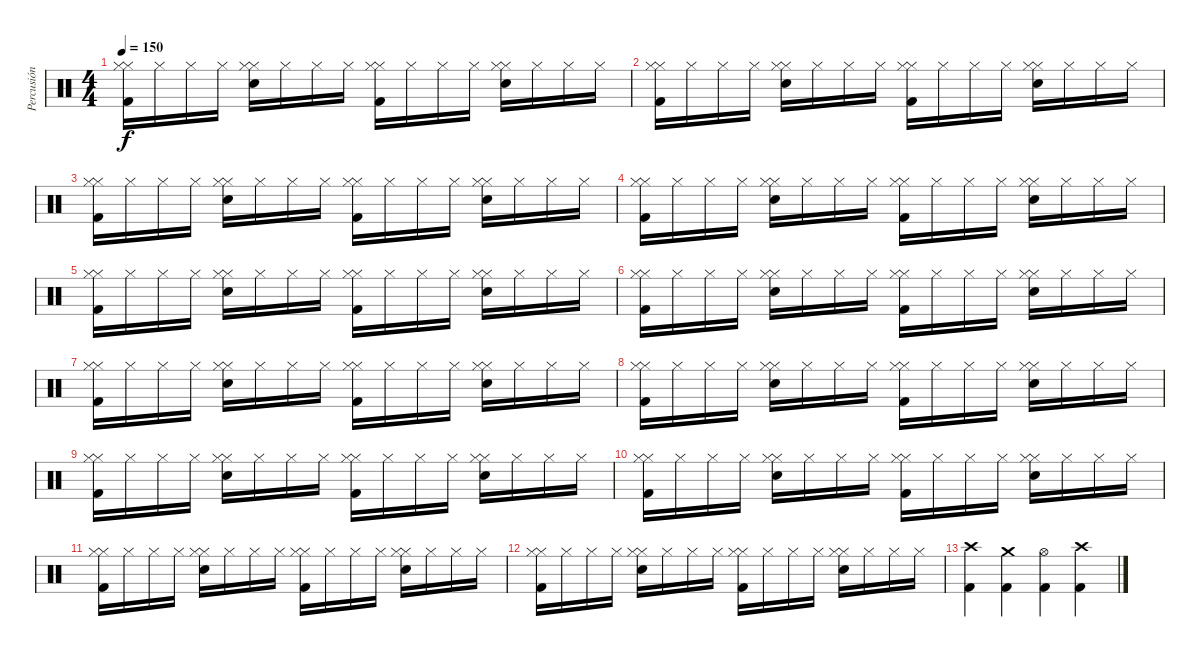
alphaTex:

\track ("Percusión" "Percusión") {instrument percussion}
\staff {score}
\articulation defaults
\ts (4 4)
\tempo 150
\clef neutral
\ks c
("Kick (hit) 2" "Hi-Hat (closed)" "Hi-Hat (closed)").16{dy f} "Hi-Hat (closed)".16 "Hi-Hat (closed)".16 "Hi-Hat (closed)".16 ("Hi-Hat (closed)" "Electric Snare (hit)" "Hi-Hat (closed)").16 "Hi-Hat (closed)".16 "Hi-Hat (closed)".16 "Hi-Hat (closed)".16 ("Kick (hit) 2" "Hi-Hat (closed)" "Hi-Hat (closed)").16 "Hi-Hat (closed)".16 "Hi-Hat (closed)".16 "Hi-Hat (closed)".16 ("Hi-Hat (closed)" "Electric Snare (hit)" "Hi-Hat (closed)").16 "Hi-Hat (closed)".16 "Hi-Hat (closed)".16 "Hi-Hat (closed)".16 |
("Kick (hit) 2" "Hi-Hat (closed)" "Hi-Hat (closed)").16 "Hi-Hat (closed)".16 "Hi-Hat (closed)".16 "Hi-Hat (closed)".16 ("Hi-Hat (closed)" "Electric Snare (hit)" "Hi-Hat (closed)").16 "Hi-Hat (closed)".16 "Hi-Hat (closed)".16 "Hi-Hat (closed)".16 ("Kick (hit) 2" "Hi-Hat (closed)" "Hi-Hat (closed)").16 "Hi-Hat (closed)".16 "Hi-Hat (closed)".16 "Hi-Hat (closed)".16 ("Hi-Hat (closed)" "Electric Snare (hit)" "Hi-Hat (closed)").16 "Hi-Hat (closed)".16 "Hi-Hat (closed)".16 "Hi-Hat (closed)".16 |
("Kick (hit) 2" "Hi-Hat (closed)" "Hi-Hat (closed)").16 "Hi-Hat (closed)".16 "Hi-Hat (closed)".16 "Hi-Hat (closed)".16 ("Hi-Hat (closed)" "Electric Snare (hit)" "Hi-Hat (closed)").16 "Hi-Hat (closed)".16 "Hi-Hat (closed)".16 "Hi-Hat (closed)".16 ("Kick (hit) 2" "Hi-Hat (closed)" "Hi-Hat (closed)").16 "Hi-Hat (closed)".16 "Hi-Hat (closed)".16 "Hi-Hat (closed)".16 ("Hi-Hat (closed)" "Electric Snare (hit)" "Hi-Hat (closed)").16 "Hi-Hat (closed)".16 "Hi-Hat (closed)".16 "Hi-Hat (closed)".16 |
("Kick (hit) 2" "Hi-Hat (closed)" "Hi-Hat (closed)").16 "Hi-Hat (closed)".16 "Hi-Hat (closed)".16 "Hi-Hat (closed)".16 ("Hi-Hat (closed)" "Electric Snare (hit)" "Hi-Hat (closed)").16 "Hi-Hat (closed)".16 "Hi-Hat (closed)".16 "Hi-Hat (closed)".16 ("Kick (hit) 2" "Hi-Hat (closed)" "Hi-Hat (closed)").16 "Hi-Hat (closed)".16 "Hi-Hat (closed)".16 "Hi-Hat (closed)".16 ("Hi-Hat (closed)" "Electric Snare (hit)" "Hi-Hat (closed)").16 "Hi-Hat (closed)".16 "Hi-Hat (closed)".16 "Hi-Hat (closed)".16 |
("Kick (hit) 2" "Hi-Hat (closed)" "Hi-Hat (closed)").16 "Hi-Hat (closed)".16 "Hi-Hat (closed)".16 "Hi-Hat (closed)".16 ("Hi-Hat (closed)" "Electric Snare (hit)" "Hi-Hat (closed)").16 "Hi-Hat (closed)".16 "Hi-Hat (closed)".16 "Hi-Hat (closed)".16 ("Kick (hit) 2" "Hi-Hat (closed)" "Hi-Hat (closed)").16 "Hi-Hat (closed)".16 "Hi-Hat (closed)".16 "Hi-Hat (closed)".16 ("Hi-Hat (closed)" "Electric Snare (hit)" "Hi-Hat (closed)").16 "Hi-Hat (closed)".16 "Hi-Hat (closed)".16 "Hi-Hat (closed)".16 |
("Kick (hit) 2" "Hi-Hat (closed)" "Hi-Hat (closed)").16 "Hi-Hat (closed)".16 "Hi-Hat (closed)".16 "Hi-Hat (closed)".16 ("Hi-Hat (closed)" "Electric Snare (hit)" "Hi-Hat (closed)").16 "Hi-Hat (closed)".16 "Hi-Hat (closed)".16 "Hi-Hat (closed)".16 ("Kick (hit) 2" "Hi-Hat (closed)" "Hi-Hat (closed)").16 "Hi-Hat (closed)".16 "Hi-Hat (closed)".16 "Hi-Hat (closed)".16 ("Hi-Hat (closed)" "Electric Snare (hit)" "Hi-Hat (closed)").16 "Hi-Hat (closed)".16 "Hi-Hat (closed)".16 "Hi-Hat (closed)".16 |
("Kick (hit) 2" "Hi-Hat (closed)" "Hi-Hat (closed)").16 "Hi-Hat (closed)".16 "Hi-Hat (closed)".16 "Hi-Hat (closed)".16 ("Hi-Hat (closed)" "Electric Snare (hit)" "Hi-Hat (closed)").16 "Hi-Hat (closed)".16 "Hi-Hat (closed)".16 "Hi-Hat (closed)".16 ("Kick (hit) 2" "Hi-Hat (closed)" "Hi-Hat (closed)").16 "Hi-Hat (closed)".16 "Hi-Hat (closed)".16 "Hi-Hat (closed)".16 ("Hi-Hat (closed)" "Electric Snare (hit)" "Hi-Hat (closed)").16 "Hi-Hat (closed)".16 "Hi-Hat (closed)".16 "Hi-Hat (closed)".16 |
("Kick (hit) 2" "Hi-Hat (closed)" "Hi-Hat (closed)").16 "Hi-Hat (closed)".16 "Hi-Hat (closed)".16 "Hi-Hat (closed)".16 ("Hi-Hat (closed)" "Electric Snare (hit)" "Hi-Hat (closed)").16 "Hi-Hat (closed)".16 "Hi-Hat (closed)".16 "Hi-Hat (closed)".16 ("Kick (hit) 2" "Hi-Hat (closed)" "Hi-Hat (closed)").16 "Hi-Hat (closed)".16 "Hi-Hat (closed)".16 "Hi-Hat (closed)".16 ("Hi-Hat (closed)" "Electric Snare (hit)" "Hi-Hat (closed)").16 "Hi-Hat (closed)".16 "Hi-Hat (closed)".16 "Hi-Hat (closed)".16 |
("Kick (hit) 2" "Hi-Hat (closed)" "Hi-Hat (closed)").16 "Hi-Hat (closed)".16 "Hi-Hat (closed)".16 "Hi-Hat (closed)".16 ("Hi-Hat (closed)" "Electric Snare (hit)" "Hi-Hat (closed)").16 "Hi-Hat (closed)".16 "Hi-Hat (closed)".16 "Hi-Hat (closed)".16 ("Kick (hit) 2" "Hi-Hat (closed)" "Hi-Hat (closed)").16 "Hi-Hat (closed)".16 "Hi-Hat (closed)".16 "Hi-Hat (closed)".16 ("Hi-Hat (closed)" "Electric Snare (hit)" "Hi-Hat (closed)").16 "Hi-Hat (closed)".16 "Hi-Hat (closed)".16 "Hi-Hat (closed)".16 |
("Kick (hit) 2" "Hi-Hat (closed)" "Hi-Hat (closed)").16 "Hi-Hat (closed)".16 "Hi-Hat (closed)".16 "Hi-Hat (closed)".16 ("Hi-Hat (closed)" "Electric Snare (hit)" "Hi-Hat (closed)").16 "Hi-Hat (closed)".16 "Hi-Hat (closed)".16 "Hi-Hat (closed)".16 ("Kick (hit) 2" "Hi-Hat (closed)" "Hi-Hat (closed)").16 "Hi-Hat (closed)".16 "Hi-Hat (closed)".16 "Hi-Hat (closed)".16 ("Hi-Hat (closed)" "Electric Snare (hit)" "Hi-Hat (closed)").16 "Hi-Hat (closed)".16 "Hi-Hat (closed)".16 "Hi-Hat (closed)".16 |
("Kick (hit) 2" "Hi-Hat (closed)" "Hi-Hat (closed)").16 "Hi-Hat (closed)".16 "Hi-Hat (closed)".16 "Hi-Hat (closed)".16 ("Hi-Hat (closed)" "Electric Snare (hit)" "Hi-Hat (closed)").16 "Hi-Hat (closed)".16 "Hi-Hat (closed)".16 "Hi-Hat (closed)".16 ("Kick (hit) 2" "Hi-Hat (closed)" "Hi-Hat (closed)").16 "Hi-Hat (closed)".16 "Hi-Hat (closed)".16 "Hi-Hat (closed)".16 ("Hi-Hat (closed)" "Electric Snare (hit)" "Hi-Hat (closed)").16 "Hi-Hat (closed)".16 "Hi-Hat (closed)".16 "Hi-Hat (closed)".16 |
("Kick (hit) 2" "Hi-Hat (closed)" "Hi-Hat (closed)").16 "Hi-Hat (closed)".16 "Hi-Hat (closed)".16 "Hi-Hat (closed)".16 ("Hi-Hat (closed)" "Electric Snare (hit)" "Hi-Hat (closed)").16 "Hi-Hat (closed)".16 "Hi-Hat (closed)".16 "Hi-Hat (closed)".16 ("Kick (hit) 2" "Hi-Hat (closed)" "Hi-Hat (closed)").16 "Hi-Hat (closed)".16 "Hi-Hat (closed)".16 "Hi-Hat (closed)".16 ("Hi-Hat (closed)" "Electric Snare (hit)" "Hi-Hat (closed)").16 "Hi-Hat (closed)".16 "Hi-Hat (closed)".16 "Hi-Hat (closed)".16 |
("Crash high (hit)" "Kick (hit) 2").4 ("Crash medium (hit)" "Kick (hit) 2").4 ("Hi-Hat (open)" "Kick (hit) 2").4 ("Crash high (hit)" "Kick (hit) 2").4
